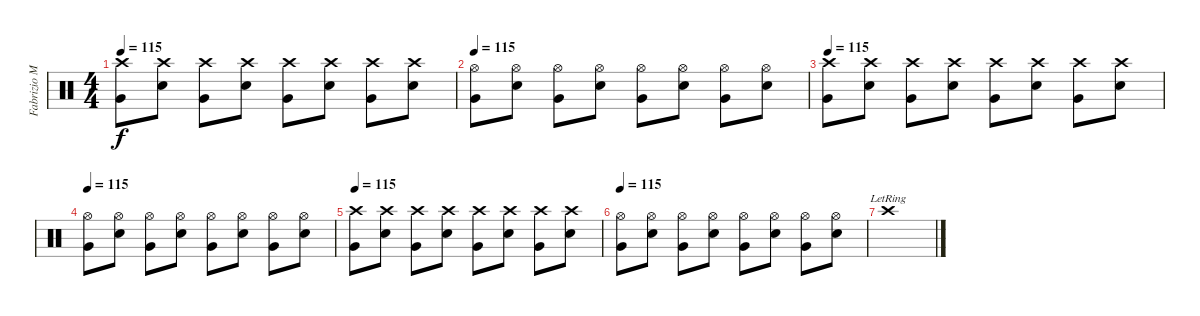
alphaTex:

\track ("Fabrizio Moretti" "Fabrizio M") {instrument percussion}
\staff {score}
\articulation defaults
\ts (4 4)
\tempo 115
\clef neutral
\ks c
("Very Low Tom (hit)" "Crash high (hit)").8{dy f} ("Electric Snare (hit)" "Crash high (hit)").8 ("Very Low Tom (hit)" "Crash high (hit)").8 ("Electric Snare (hit)" "Crash high (hit)").8 ("Very Low Tom (hit)" "Crash high (hit)").8 ("Electric Snare (hit)" "Crash high (hit)").8 ("Very Low Tom (hit)" "Crash high (hit)").8 ("Electric Snare (hit)" "Crash high (hit)").8 |
\tempo 115
("Very Low Tom (hit)" "Hi-Hat (open)").8 ("Electric Snare (hit)" "Hi-Hat (open)").8 ("Very Low Tom (hit)" "Hi-Hat (open)").8 ("Electric Snare (hit)" "Hi-Hat (open)").8 ("Very Low Tom (hit)" "Hi-Hat (open)").8 ("Electric Snare (hit)" "Hi-Hat (open)").8 ("Very Low Tom (hit)" "Hi-Hat (open)").8 ("Electric Snare (hit)" "Hi-Hat (open)").8 |
\tempo 115
("Very Low Tom (hit)" "Crash high (hit)").8 ("Electric Snare (hit)" "Crash high (hit)").8 ("Very Low Tom (hit)" "Crash high (hit)").8 ("Electric Snare (hit)" "Crash high (hit)").8 ("Very Low Tom (hit)" "Crash high (hit)").8 ("Electric Snare (hit)" "Crash high (hit)").8 ("Very Low Tom (hit)" "Crash high (hit)").8 ("Electric Snare (hit)" "Crash high (hit)").8 |
\tempo 115
("Very Low Tom (hit)" "Hi-Hat (open)").8 ("Electric Snare (hit)" "Hi-Hat (open)").8 ("Very Low Tom (hit)" "Hi-Hat (open)").8 ("Electric Snare (hit)" "Hi-Hat (open)").8 ("Very Low Tom (hit)" "Hi-Hat (open)").8 ("Electric Snare (hit)" "Hi-Hat (open)").8 ("Very Low Tom (hit)" "Hi-Hat (open)").8 ("Electric Snare (hit)" "Hi-Hat (open)").8 |
\tempo 115
("Very Low Tom (hit)" "Crash high (hit)").8 ("Electric Snare (hit)" "Crash high (hit)").8 ("Very Low Tom (hit)" "Crash high (hit)").8 ("Electric Snare (hit)" "Crash high (hit)").8 ("Very Low Tom (hit)" "Crash high (hit)").8 ("Electric Snare (hit)" "Crash high (hit)").8 ("Very Low Tom (hit)" "Crash high (hit)").8 ("Electric Snare (hit)" "Crash high (hit)").8 |
\tempo 115
("Very Low Tom (hit)" "Hi-Hat (open)").8 ("Electric Snare (hit)" "Hi-Hat (open)").8 ("Very Low Tom (hit)" "Hi-Hat (open)").8 ("Electric Snare (hit)" "Hi-Hat (open)").8 ("Very Low Tom (hit)" "Hi-Hat (open)").8 ("Electric Snare (hit)" "Hi-Hat (open)").8 ("Very Low Tom (hit)" "Hi-Hat (open)").8 ("Electric Snare (hit)" "Hi-Hat (open)").8 |
"Crash high (hit)"{lr}.1
